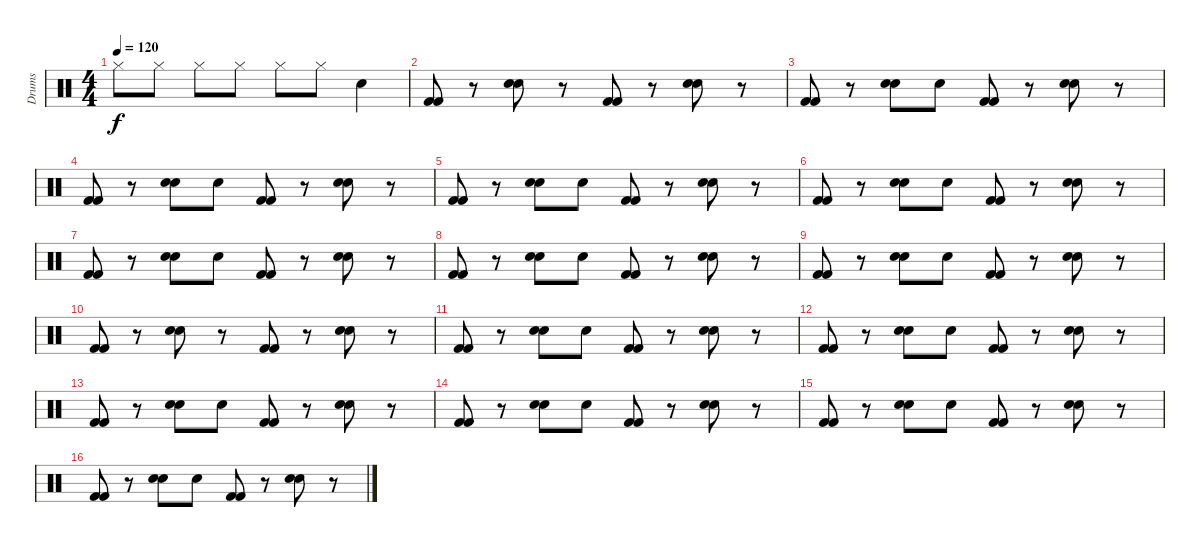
\track ("Drums" "Drums") {instrument percussion}
\staff {score}
\articulation defaults
\ts (4 4)
\tempo 120
\clef neutral
\ks c "Hi-Hat (closed)".8{dy f} "Hi-Hat (closed)".8 "Hi-Hat (closed)".8 "Hi-Hat (closed)".8 "Hi-Hat (closed)".8 "Hi-Hat (closed)".8 "Snare (hit) 2".4
|
("Kick (hit) 2" "Kick (hit) 2").8 r.8 ("Snare (hit) 2" "Snare (hit) 2").8 r.8 ("Kick (hit) 2" "Kick (hit) 2").8 r.8 ("Snare (hit) 2" "Snare (hit) 2").8 r.8 |
("Kick (hit) 2" "Kick (hit) 2").8 r.8 ("Snare (hit) 2" "Snare (hit) 2").8 "Snare (hit) 2".8 ("Kick (hit) 2" "Kick (hit) 2").8 r.8 ("Snare (hit) 2" "Snare (hit) 2").8 r.8 |
("Kick (hit) 2" "Kick (hit) 2").8 r.8 ("Snare (hit) 2" "Snare (hit) 2").8 "Snare (hit) 2".8 ("Kick (hit) 2" "Kick (hit) 2").8 r.8 ("Snare (hit) 2" "Snare (hit) 2").8 r.8 |
("Kick (hit) 2" "Kick (hit) 2").8 r.8 ("Snare (hit) 2" "Snare (hit) 2").8 "Snare (hit) 2".8 ("Kick (hit) 2" "Kick (hit) 2").8 r.8 ("Snare (hit) 2" "Snare (hit) 2").8 r.8 |
("Kick (hit) 2" "Kick (hit) 2").8 r.8 ("Snare (hit) 2" "Snare (hit) 2").8 "Snare (hit) 2".8 ("Kick (hit) 2" "Kick (hit) 2").8 r.8 ("Snare (hit) 2" "Snare (hit) 2").8 r.8 |
("Kick (hit) 2" "Kick (hit) 2").8 r.8 ("Snare (hit) 2" "Snare (hit) 2").8 "Snare (hit) 2".8 ("Kick (hit) 2" "Kick (hit) 2").8 r.8 ("Snare (hit) 2" "Snare (hit) 2").8 r.8 |
("Kick (hit) 2" "Kick (hit) 2").8 r.8 ("Snare (hit) 2" "Snare (hit) 2").8 "Snare (hit) 2".8 ("Kick (hit) 2" "Kick (hit) 2").8 r.8 ("Snare (hit) 2" "Snare (hit) 2").8 r.8 |
("Kick (hit) 2" "Kick (hit) 2").8 r.8 ("Snare (hit) 2" "Snare (hit) 2").8 "Snare (hit) 2".8 ("Kick (hit) 2" "Kick (hit) 2").8 r.8 ("Snare (hit) 2" "Snare (hit) 2").8 r.8 |
("Kick (hit) 2" "Kick (hit) 2").8 r.8 ("Snare (hit) 2" "Snare (hit) 2").8 r.8 ("Kick (hit) 2" "Kick (hit) 2").8 r.8 ("Snare (hit) 2" "Snare (hit) 2").8 r.8 |
("Kick (hit) 2" "Kick (hit) 2").8 r.8 ("Snare (hit) 2" "Snare (hit) 2").8 "Snare (hit) 2".8 ("Kick (hit) 2" "Kick (hit) 2").8 r.8 ("Snare (hit) 2" "Snare (hit) 2").8 r.8 |
("Kick (hit) 2" "Kick (hit) 2").8 r.8 ("Snare (hit) 2" "Snare (hit) 2").8 "Snare (hit) 2".8 ("Kick (hit) 2" "Kick (hit) 2").8 r.8 ("Snare (hit) 2" "Snare (hit) 2").8 r.8 |
("Kick (hit) 2" "Kick (hit) 2").8 r.8 ("Snare (hit) 2" "Snare (hit) 2").8 "Snare (hit) 2".8 ("Kick (hit) 2" "Kick (hit) 2").8 r.8 ("Snare (hit) 2" "Snare (hit) 2").8 r.8 |
("Kick (hit) 2" "Kick (hit) 2").8 r.8 ("Snare (hit) 2" "Snare (hit) 2").8 "Snare (hit) 2".8 ("Kick (hit) 2" "Kick (hit) 2").8 r.8 ("Snare (hit) 2" "Snare (hit) 2").8 r.8 |
("Kick (hit) 2" "Kick (hit) 2").8 r.8 ("Snare (hit) 2" "Snare (hit) 2").8 "Snare (hit) 2".8 ("Kick (hit) 2" "Kick (hit) 2").8 r.8 ("Snare (hit) 2" "Snare (hit) 2").8 r.8 |
("Kick (hit) 2" "Kick (hit) 2").8 r.8 ("Snare (hit) 2" "Snare (hit) 2").8 "Snare (hit) 2".8 ("Kick (hit) 2" "Kick (hit) 2").8 r.8 ("Snare (hit) 2" "Snare (hit) 2").8 r.8
